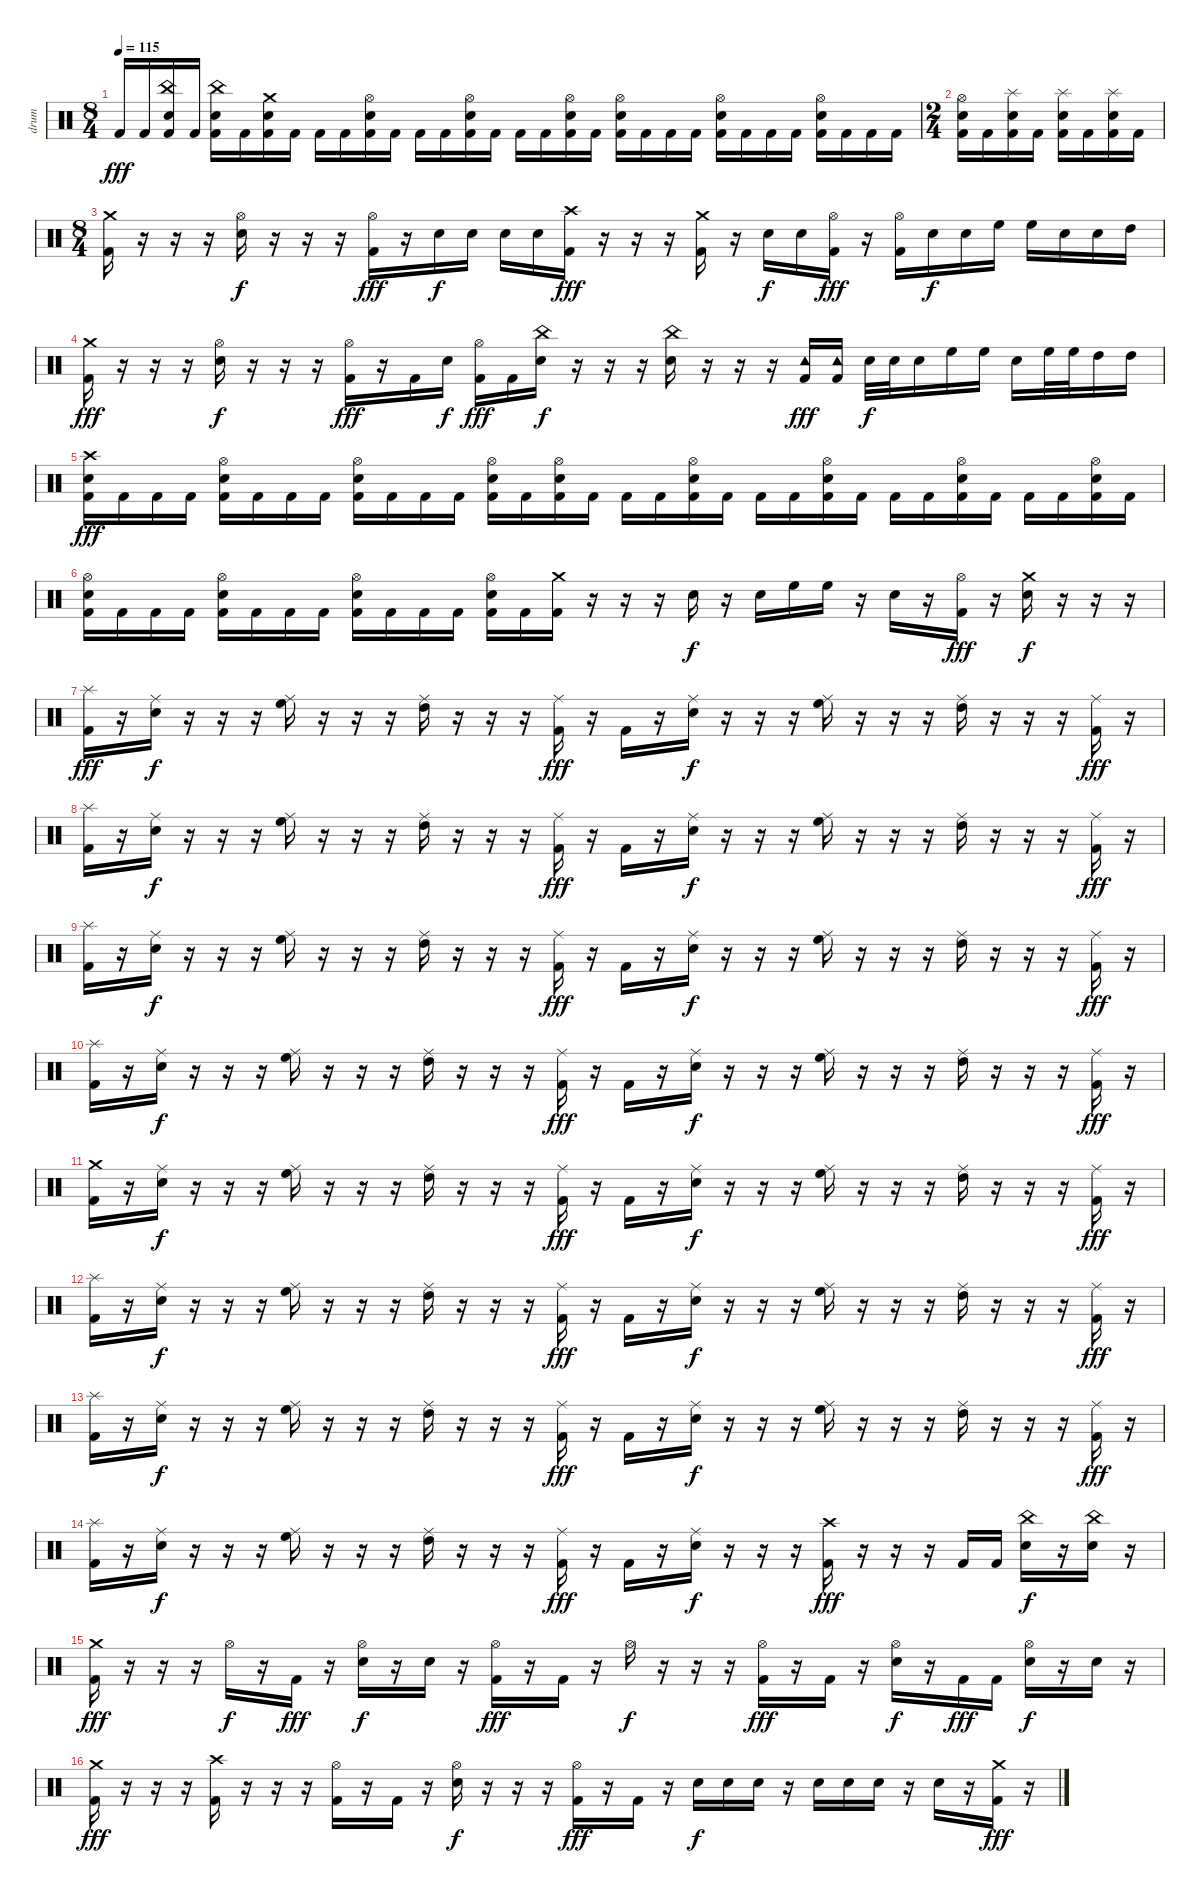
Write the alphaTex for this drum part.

\track ("drum" "drum") {instrument percussion}
\staff {score}
\articulation defaults
\ts (8 4)
\tempo 115
\clef neutral
\ks c "Kick (hit) 2".16{dy fff} "Kick (hit) 2".16
("China (hit)" "Electric Snare (hit)" "Kick (hit) 2").16 "Kick (hit) 2".16 ("China (hit)" "Electric Snare (hit)" "Kick (hit) 2").16 "Kick (hit) 2".16 ("Crash medium (hit)" "Electric Snare (hit)" "Kick (hit) 2").16 "Kick (hit) 2".16 "Kick (hit) 2".16 "Kick (hit) 2".16 ("Hi-Hat (open)" "Electric Snare (hit)" "Kick (hit) 2").16 "Kick (hit) 2".16 "Kick (hit) 2".16 "Kick (hit) 2".16 ("Hi-Hat (open)" "Electric Snare (hit)" "Kick (hit) 2").16 "Kick (hit) 2".16 "Kick (hit) 2".16 "Kick (hit) 2".16 ("Hi-Hat (open)" "Electric Snare (hit)" "Kick (hit) 2").16 "Kick (hit) 2".16 ("Hi-Hat (open)" "Electric Snare (hit)" "Kick (hit) 2").16 "Kick (hit) 2".16 "Kick (hit) 2".16 "Kick (hit) 2".16 ("Hi-Hat (open)" "Electric Snare (hit)" "Kick (hit) 2").16 "Kick (hit) 2".16 "Kick (hit) 2".16 "Kick (hit) 2".16 ("Hi-Hat (open)" "Electric Snare (hit)" "Kick (hit) 2").16 "Kick (hit) 2".16 "Kick (hit) 2".16 "Kick (hit) 2".16 |
\ts (2 4)
("Hi-Hat (open)" "Electric Snare (hit)" "Kick (hit) 2").16 "Kick (hit) 2".16 ("Splash (hit)" "Electric Snare (hit)" "Kick (hit) 2").16 "Kick (hit) 2".16 ("Splash (hit)" "Electric Snare (hit)" "Kick (hit) 2").16 "Kick (hit) 2".16 ("Splash (hit)" "Electric Snare (hit)" "Kick (hit) 2").16 "Kick (hit) 2".16 |
\ts (8 4)
("Crash medium (hit)" "Kick (hit) 2").16 r.16 r.16 r.16 ("Hi-Hat (open)" "Electric Snare (hit)").16{dy f} r.16 r.16 r.16 ("Hi-Hat (open)" "Kick (hit) 2").16{dy fff} r.16 "Electric Snare (hit)".16{dy f} "Electric Snare (hit)".16 "Electric Snare (hit)".16 "Electric Snare (hit)".16 ("Crash high (hit)" "Kick (hit) 2").16{dy fff} r.16 r.16 r.16 ("Crash medium (hit)" "Kick (hit) 2").16 r.16 "Electric Snare (hit)".16{dy f} "Electric Snare (hit)".16 ("Hi-Hat (open)" "Kick (hit) 2").16{dy fff} r.16 ("Hi-Hat (open)" "Kick (hit) 2").16 "Electric Snare (hit)".16{dy f} "Electric Snare (hit)".16 "High Floor Tom (hit)".16 "High Floor Tom (hit)".16 "Electric Snare (hit)".16 "Electric Snare (hit)".16 "High Tom (hit)".16 |
("Crash medium (hit)" "Kick (hit) 2").16{dy fff} r.16 r.16 r.16 ("Hi-Hat (open)" "Electric Snare (hit)").16{dy f} r.16 r.16 r.16 ("Hi-Hat (open)" "Kick (hit) 2").16{dy fff} r.16 "Kick (hit) 2".16 "Electric Snare (hit)".16{dy f} ("Hi-Hat (open)" "Kick (hit) 2").16{dy fff} "Kick (hit) 2".16 ("China (hit)" "Electric Snare (hit)").16{dy f} r.16 r.16 r.16 ("China (hit)" "Electric Snare (hit)").16 r.16 r.16 r.16 ("Tambourine (hit)" "Kick (hit) 2").16{dy fff} ("Tambourine (hit)" "Kick (hit) 2").16 "Electric Snare (hit)".32{dy f} "Electric Snare (hit)".32 "Electric Snare (hit)".16 "High Floor Tom (hit)".16 "High Floor Tom (hit)".16 "Electric Snare (hit)".16 "High Floor Tom (hit)".32 "High Floor Tom (hit)".32 "High Tom (hit)".16 "High Tom (hit)".16 |
("Crash high (hit)" "Electric Snare (hit)" "Kick (hit) 2").16{dy fff} "Kick (hit) 2".16 "Kick (hit) 2".16 "Kick (hit) 2".16 ("Hi-Hat (open)" "Electric Snare (hit)" "Kick (hit) 2").16 "Kick (hit) 2".16 "Kick (hit) 2".16 "Kick (hit) 2".16 ("Hi-Hat (open)" "Electric Snare (hit)" "Kick (hit) 2").16 "Kick (hit) 2".16 "Kick (hit) 2".16 "Kick (hit) 2".16 ("Hi-Hat (open)" "Electric Snare (hit)" "Kick (hit) 2").16 "Kick (hit) 2".16 ("Hi-Hat (open)" "Electric Snare (hit)" "Kick (hit) 2").16 "Kick (hit) 2".16 "Kick (hit) 2".16 "Kick (hit) 2".16 ("Hi-Hat (open)" "Electric Snare (hit)" "Kick (hit) 2").16 "Kick (hit) 2".16 "Kick (hit) 2".16 "Kick (hit) 2".16 ("Hi-Hat (open)" "Electric Snare (hit)" "Kick (hit) 2").16 "Kick (hit) 2".16 "Kick (hit) 2".16 "Kick (hit) 2".16 ("Hi-Hat (open)" "Electric Snare (hit)" "Kick (hit) 2").16 "Kick (hit) 2".16 "Kick (hit) 2".16 "Kick (hit) 2".16 ("Hi-Hat (open)" "Electric Snare (hit)" "Kick (hit) 2").16 "Kick (hit) 2".16 |
("Hi-Hat (open)" "Electric Snare (hit)" "Kick (hit) 2").16 "Kick (hit) 2".16 "Kick (hit) 2".16 "Kick (hit) 2".16 ("Hi-Hat (open)" "Electric Snare (hit)" "Kick (hit) 2").16 "Kick (hit) 2".16 "Kick (hit) 2".16 "Kick (hit) 2".16 ("Hi-Hat (open)" "Electric Snare (hit)" "Kick (hit) 2").16 "Kick (hit) 2".16 "Kick (hit) 2".16 "Kick (hit) 2".16 ("Hi-Hat (open)" "Electric Snare (hit)" "Kick (hit) 2").16 "Kick (hit) 2".16 ("Crash medium (hit)" "Kick (hit) 2").16 r.16 r.16 r.16 "Electric Snare (hit)".16{dy f} r.16 "Electric Snare (hit)".16 "High Floor Tom (hit)".16 "High Floor Tom (hit)".16 r.16 "Electric Snare (hit)".16 r.16 ("Hi-Hat (open)" "Kick (hit) 2").16{dy fff} r.16 ("Crash medium (hit)" "Electric Snare (hit)").16{dy f} r.16 r.16 r.16 |
("Splash (hit)" "Kick (hit) 2").16{dy fff} r.16 ("Ride (middle)" "Electric Snare (hit)").16{dy f} r.16 r.16 r.16 ("Ride (middle)" "High Floor Tom (hit)").16 r.16 r.16 r.16 ("Ride (middle)" "High Tom (hit)").16 r.16 r.16 r.16 ("Ride (middle)" "Kick (hit) 2").16{dy fff} r.16 "Kick (hit) 2".16 r.16 ("Ride (middle)" "Electric Snare (hit)").16{dy f} r.16 r.16 r.16 ("Ride (middle)" "High Floor Tom (hit)").16 r.16 r.16 r.16 ("Ride (middle)" "High Tom (hit)").16 r.16 r.16 r.16 ("Ride (middle)" "Kick (hit) 2").16{dy fff} r.16 |
("Splash (hit)" "Kick (hit) 2").16 r.16 ("Ride (middle)" "Electric Snare (hit)").16{dy f} r.16 r.16 r.16 ("Ride (middle)" "High Floor Tom (hit)").16 r.16 r.16 r.16 ("Ride (middle)" "High Tom (hit)").16 r.16 r.16 r.16 ("Ride (middle)" "Kick (hit) 2").16{dy fff} r.16 "Kick (hit) 2".16 r.16 ("Ride (middle)" "Electric Snare (hit)").16{dy f} r.16 r.16 r.16 ("Ride (middle)" "High Floor Tom (hit)").16 r.16 r.16 r.16 ("Ride (middle)" "High Tom (hit)").16 r.16 r.16 r.16 ("Ride (middle)" "Kick (hit) 2").16{dy fff} r.16 |
("Splash (hit)" "Kick (hit) 2").16 r.16 ("Ride (middle)" "Electric Snare (hit)").16{dy f} r.16 r.16 r.16 ("Ride (middle)" "High Floor Tom (hit)").16 r.16 r.16 r.16 ("Ride (middle)" "High Tom (hit)").16 r.16 r.16 r.16 ("Ride (middle)" "Kick (hit) 2").16{dy fff} r.16 "Kick (hit) 2".16 r.16 ("Ride (middle)" "Electric Snare (hit)").16{dy f} r.16 r.16 r.16 ("Ride (middle)" "High Floor Tom (hit)").16 r.16 r.16 r.16 ("Ride (middle)" "High Tom (hit)").16 r.16 r.16 r.16 ("Ride (middle)" "Kick (hit) 2").16{dy fff} r.16 |
("Splash (hit)" "Kick (hit) 2").16 r.16 ("Ride (middle)" "Electric Snare (hit)").16{dy f} r.16 r.16 r.16 ("Ride (middle)" "High Floor Tom (hit)").16 r.16 r.16 r.16 ("Ride (middle)" "High Tom (hit)").16 r.16 r.16 r.16 ("Ride (middle)" "Kick (hit) 2").16{dy fff} r.16 "Kick (hit) 2".16 r.16 ("Ride (middle)" "Electric Snare (hit)").16{dy f} r.16 r.16 r.16 ("Ride (middle)" "High Floor Tom (hit)").16 r.16 r.16 r.16 ("Ride (middle)" "High Tom (hit)").16 r.16 r.16 r.16 ("Ride (middle)" "Kick (hit) 2").16{dy fff} r.16 |
("Crash medium (hit)" "Kick (hit) 2").16 r.16 ("Ride (middle)" "Electric Snare (hit)").16{dy f} r.16 r.16 r.16 ("Ride (middle)" "High Floor Tom (hit)").16 r.16 r.16 r.16 ("Ride (middle)" "High Tom (hit)").16 r.16 r.16 r.16 ("Ride (middle)" "Kick (hit) 2").16{dy fff} r.16 "Kick (hit) 2".16 r.16 ("Ride (middle)" "Electric Snare (hit)").16{dy f} r.16 r.16 r.16 ("Ride (middle)" "High Floor Tom (hit)").16 r.16 r.16 r.16 ("Ride (middle)" "High Tom (hit)").16 r.16 r.16 r.16 ("Ride (middle)" "Kick (hit) 2").16{dy fff} r.16 |
("Splash (hit)" "Kick (hit) 2").16 r.16 ("Ride (middle)" "Electric Snare (hit)").16{dy f} r.16 r.16 r.16 ("Ride (middle)" "High Floor Tom (hit)").16 r.16 r.16 r.16 ("Ride (middle)" "High Tom (hit)").16 r.16 r.16 r.16 ("Ride (middle)" "Kick (hit) 2").16{dy fff} r.16 "Kick (hit) 2".16 r.16 ("Ride (middle)" "Electric Snare (hit)").16{dy f} r.16 r.16 r.16 ("Ride (middle)" "High Floor Tom (hit)").16 r.16 r.16 r.16 ("Ride (middle)" "High Tom (hit)").16 r.16 r.16 r.16 ("Ride (middle)" "Kick (hit) 2").16{dy fff} r.16 |
("Splash (hit)" "Kick (hit) 2").16 r.16 ("Ride (middle)" "Electric Snare (hit)").16{dy f} r.16 r.16 r.16 ("Ride (middle)" "High Floor Tom (hit)").16 r.16 r.16 r.16 ("Ride (middle)" "High Tom (hit)").16 r.16 r.16 r.16 ("Ride (middle)" "Kick (hit) 2").16{dy fff} r.16 "Kick (hit) 2".16 r.16 ("Ride (middle)" "Electric Snare (hit)").16{dy f} r.16 r.16 r.16 ("Ride (middle)" "High Floor Tom (hit)").16 r.16 r.16 r.16 ("Ride (middle)" "High Tom (hit)").16 r.16 r.16 r.16 ("Ride (middle)" "Kick (hit) 2").16{dy fff} r.16 |
("Splash (hit)" "Kick (hit) 2").16 r.16 ("Ride (middle)" "Electric Snare (hit)").16{dy f} r.16 r.16 r.16 ("Ride (middle)" "High Floor Tom (hit)").16 r.16 r.16 r.16 ("Ride (middle)" "High Tom (hit)").16 r.16 r.16 r.16 ("Ride (middle)" "Kick (hit) 2").16{dy fff} r.16 "Kick (hit) 2".16 r.16 ("Ride (middle)" "Electric Snare (hit)").16{dy f} r.16 r.16 r.16 ("Crash high (hit)" "Kick (hit) 2").16{dy fff} r.16 r.16 r.16 "Kick (hit) 2".16 "Kick (hit) 2".16 ("China (hit)" "Electric Snare (hit)").16{dy f} r.16 ("China (hit)" "Electric Snare (hit)").16 r.16 |
("Crash medium (hit)" "Kick (hit) 2").16{dy fff} r.16 r.16 r.16 "Hi-Hat (open)".16{dy f} r.16 "Kick (hit) 2".16{dy fff} r.16 ("Hi-Hat (open)" "Electric Snare (hit)").16{dy f} r.16 "Electric Snare (hit)".16 r.16 ("Hi-Hat (open)" "Kick (hit) 2").16{dy fff} r.16 "Kick (hit) 2".16 r.16 "Hi-Hat (open)".16{dy f} r.16 r.16 r.16 ("Hi-Hat (open)" "Kick (hit) 2").16{dy fff} r.16 "Kick (hit) 2".16 r.16 ("Hi-Hat (open)" "Electric Snare (hit)").16{dy f} r.16 "Kick (hit) 2".16{dy fff} "Kick (hit) 2".16 ("Hi-Hat (open)" "Electric Snare (hit)").16{dy f} r.16 "Electric Snare (hit)".16 r.16 |
("Crash medium (hit)" "Kick (hit) 2").16{dy fff} r.16 r.16 r.16 ("Crash high (hit)" "Kick (hit) 2").16 r.16 r.16 r.16 ("Hi-Hat (open)" "Kick (hit) 2").16 r.16 "Kick (hit) 2".16 r.16 ("Hi-Hat (open)" "Electric Snare (hit)").16{dy f} r.16 r.16 r.16 ("Hi-Hat (open)" "Kick (hit) 2").16{dy fff} r.16 "Kick (hit) 2".16 r.16 "Electric Snare (hit)".16{dy f} "Electric Snare (hit)".16 "Electric Snare (hit)".16 r.16 "Electric Snare (hit)".16 "Electric Snare (hit)".16 "Electric Snare (hit)".16 r.16 "Electric Snare (hit)".16 r.16 ("Crash medium (hit)" "Kick (hit) 2").16{dy fff} r.16
